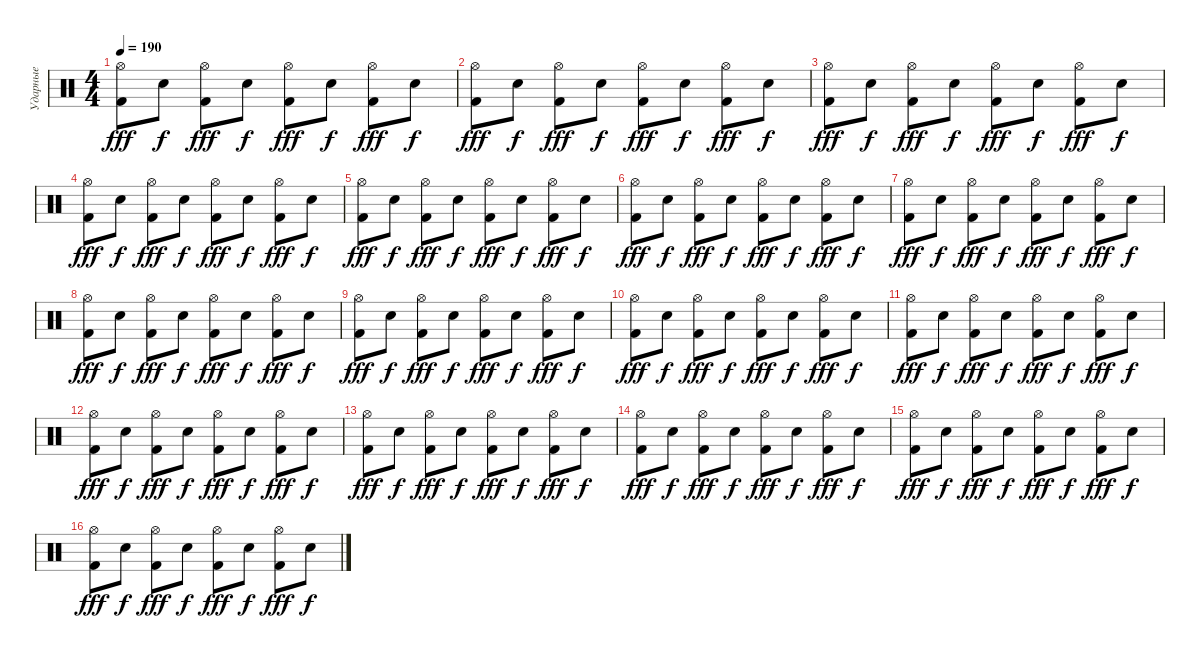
\track ("Ударные" "Ударные") {instrument percussion}
\staff
\articulation defaults
\ts (4 4)
\tempo 190
\clef neutral
\ks c
("Kick (hit) 2" "Hi-Hat (open)").8{dy fff} "Snare (hit) 2".8{dy f} ("Kick (hit) 2" "Hi-Hat (open)").8{dy fff} "Snare (hit) 2".8{dy f} ("Kick (hit) 2" "Hi-Hat (open)").8{dy fff} "Snare (hit) 2".8{dy f} ("Kick (hit) 2" "Hi-Hat (open)").8{dy fff} "Snare (hit) 2".8{dy f} |
("Kick (hit) 2" "Hi-Hat (open)").8{dy fff} "Snare (hit) 2".8{dy f} ("Kick (hit) 2" "Hi-Hat (open)").8{dy fff} "Snare (hit) 2".8{dy f} ("Kick (hit) 2" "Hi-Hat (open)").8{dy fff} "Snare (hit) 2".8{dy f} ("Kick (hit) 2" "Hi-Hat (open)").8{dy fff} "Snare (hit) 2".8{dy f} |
("Kick (hit) 2" "Hi-Hat (open)").8{dy fff} "Snare (hit) 2".8{dy f} ("Kick (hit) 2" "Hi-Hat (open)").8{dy fff} "Snare (hit) 2".8{dy f} ("Kick (hit) 2" "Hi-Hat (open)").8{dy fff} "Snare (hit) 2".8{dy f} ("Kick (hit) 2" "Hi-Hat (open)").8{dy fff} "Snare (hit) 2".8{dy f} |
("Kick (hit) 2" "Hi-Hat (open)").8{dy fff} "Snare (hit) 2".8{dy f} ("Kick (hit) 2" "Hi-Hat (open)").8{dy fff} "Snare (hit) 2".8{dy f} ("Kick (hit) 2" "Hi-Hat (open)").8{dy fff} "Snare (hit) 2".8{dy f} ("Kick (hit) 2" "Hi-Hat (open)").8{dy fff} "Snare (hit) 2".8{dy f} |
("Kick (hit) 2" "Hi-Hat (open)").8{dy fff} "Snare (hit) 2".8{dy f} ("Kick (hit) 2" "Hi-Hat (open)").8{dy fff} "Snare (hit) 2".8{dy f} ("Kick (hit) 2" "Hi-Hat (open)").8{dy fff} "Snare (hit) 2".8{dy f} ("Kick (hit) 2" "Hi-Hat (open)").8{dy fff} "Snare (hit) 2".8{dy f} |
("Kick (hit) 2" "Hi-Hat (open)").8{dy fff} "Snare (hit) 2".8{dy f} ("Kick (hit) 2" "Hi-Hat (open)").8{dy fff} "Snare (hit) 2".8{dy f} ("Kick (hit) 2" "Hi-Hat (open)").8{dy fff} "Snare (hit) 2".8{dy f} ("Kick (hit) 2" "Hi-Hat (open)").8{dy fff} "Snare (hit) 2".8{dy f} |
("Kick (hit) 2" "Hi-Hat (open)").8{dy fff} "Snare (hit) 2".8{dy f} ("Kick (hit) 2" "Hi-Hat (open)").8{dy fff} "Snare (hit) 2".8{dy f} ("Kick (hit) 2" "Hi-Hat (open)").8{dy fff} "Snare (hit) 2".8{dy f} ("Kick (hit) 2" "Hi-Hat (open)").8{dy fff} "Snare (hit) 2".8{dy f} |
("Kick (hit) 2" "Hi-Hat (open)").8{dy fff} "Snare (hit) 2".8{dy f} ("Kick (hit) 2" "Hi-Hat (open)").8{dy fff} "Snare (hit) 2".8{dy f} ("Kick (hit) 2" "Hi-Hat (open)").8{dy fff} "Snare (hit) 2".8{dy f} ("Kick (hit) 2" "Hi-Hat (open)").8{dy fff} "Snare (hit) 2".8{dy f} |
("Kick (hit) 2" "Hi-Hat (open)").8{dy fff} "Snare (hit) 2".8{dy f} ("Kick (hit) 2" "Hi-Hat (open)").8{dy fff} "Snare (hit) 2".8{dy f} ("Kick (hit) 2" "Hi-Hat (open)").8{dy fff} "Snare (hit) 2".8{dy f} ("Kick (hit) 2" "Hi-Hat (open)").8{dy fff} "Snare (hit) 2".8{dy f} |
("Kick (hit) 2" "Hi-Hat (open)").8{dy fff} "Snare (hit) 2".8{dy f} ("Kick (hit) 2" "Hi-Hat (open)").8{dy fff} "Snare (hit) 2".8{dy f} ("Kick (hit) 2" "Hi-Hat (open)").8{dy fff} "Snare (hit) 2".8{dy f} ("Kick (hit) 2" "Hi-Hat (open)").8{dy fff} "Snare (hit) 2".8{dy f} |
("Kick (hit) 2" "Hi-Hat (open)").8{dy fff} "Snare (hit) 2".8{dy f} ("Kick (hit) 2" "Hi-Hat (open)").8{dy fff} "Snare (hit) 2".8{dy f} ("Kick (hit) 2" "Hi-Hat (open)").8{dy fff} "Snare (hit) 2".8{dy f} ("Kick (hit) 2" "Hi-Hat (open)").8{dy fff} "Snare (hit) 2".8{dy f} |
("Kick (hit) 2" "Hi-Hat (open)").8{dy fff} "Snare (hit) 2".8{dy f} ("Kick (hit) 2" "Hi-Hat (open)").8{dy fff} "Snare (hit) 2".8{dy f} ("Kick (hit) 2" "Hi-Hat (open)").8{dy fff} "Snare (hit) 2".8{dy f} ("Kick (hit) 2" "Hi-Hat (open)").8{dy fff} "Snare (hit) 2".8{dy f} |
("Kick (hit) 2" "Hi-Hat (open)").8{dy fff} "Snare (hit) 2".8{dy f} ("Kick (hit) 2" "Hi-Hat (open)").8{dy fff} "Snare (hit) 2".8{dy f} ("Kick (hit) 2" "Hi-Hat (open)").8{dy fff} "Snare (hit) 2".8{dy f} ("Kick (hit) 2" "Hi-Hat (open)").8{dy fff} "Snare (hit) 2".8{dy f} |
("Kick (hit) 2" "Hi-Hat (open)").8{dy fff} "Snare (hit) 2".8{dy f} ("Kick (hit) 2" "Hi-Hat (open)").8{dy fff} "Snare (hit) 2".8{dy f} ("Kick (hit) 2" "Hi-Hat (open)").8{dy fff} "Snare (hit) 2".8{dy f} ("Kick (hit) 2" "Hi-Hat (open)").8{dy fff} "Snare (hit) 2".8{dy f} |
("Kick (hit) 2" "Hi-Hat (open)").8{dy fff} "Snare (hit) 2".8{dy f} ("Kick (hit) 2" "Hi-Hat (open)").8{dy fff} "Snare (hit) 2".8{dy f} ("Kick (hit) 2" "Hi-Hat (open)").8{dy fff} "Snare (hit) 2".8{dy f} ("Kick (hit) 2" "Hi-Hat (open)").8{dy fff} "Snare (hit) 2".8{dy f} |
("Kick (hit) 2" "Hi-Hat (open)").8{dy fff} "Snare (hit) 2".8{dy f} ("Kick (hit) 2" "Hi-Hat (open)").8{dy fff} "Snare (hit) 2".8{dy f} ("Kick (hit) 2" "Hi-Hat (open)").8{dy fff} "Snare (hit) 2".8{dy f} ("Kick (hit) 2" "Hi-Hat (open)").8{dy fff} "Snare (hit) 2".8{dy f}
